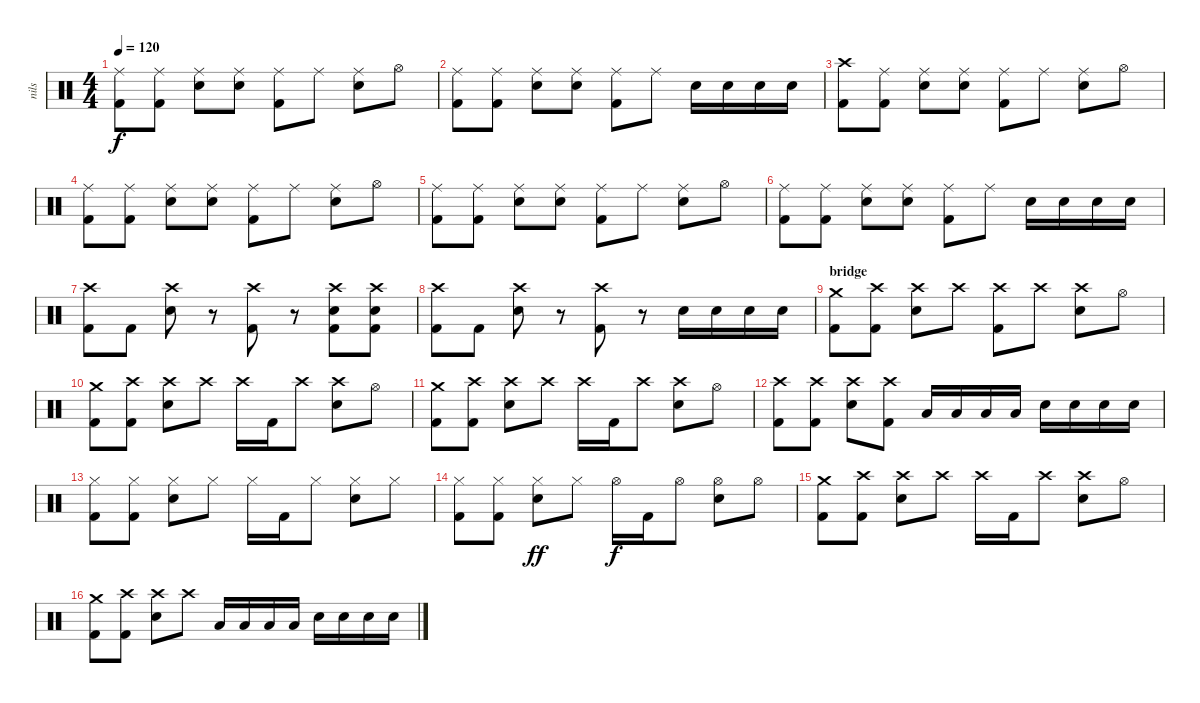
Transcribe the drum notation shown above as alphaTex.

\track ("nils" "nils") {instrument percussion}
\staff {score}
\articulation defaults
\ts (4 4)
\tempo 120
\clef neutral
\ks c
("Ride (middle)" "Kick (hit) 2").8{dy f} ("Ride (middle)" "Kick (hit) 2").8 ("Ride (middle)" "Snare (hit) 2").8 ("Ride (middle)" "Snare (hit) 2").8 ("Ride (middle)" "Kick (hit) 2").8 "Ride (middle)".8 ("Ride (middle)" "Snare (hit) 2").8 "Hi-Hat (open)".8 |
("Ride (middle)" "Kick (hit) 2").8 ("Ride (middle)" "Kick (hit) 2").8 ("Ride (middle)" "Snare (hit) 2").8 ("Ride (middle)" "Snare (hit) 2").8 ("Ride (middle)" "Kick (hit) 2").8 "Ride (middle)".8 "Snare (hit) 2".16 "Snare (hit) 2".16 "Snare (hit) 2".16 "Snare (hit) 2".16 |
("Crash high (hit)" "Kick (hit) 2").8 ("Ride (middle)" "Kick (hit) 2").8 ("Ride (middle)" "Snare (hit) 2").8 ("Ride (middle)" "Snare (hit) 2").8 ("Ride (middle)" "Kick (hit) 2").8 "Ride (middle)".8 ("Ride (middle)" "Snare (hit) 2").8 "Hi-Hat (open)".8 |
("Ride (middle)" "Kick (hit) 2").8 ("Ride (middle)" "Kick (hit) 2").8 ("Ride (middle)" "Snare (hit) 2").8 ("Ride (middle)" "Snare (hit) 2").8 ("Ride (middle)" "Kick (hit) 2").8 "Ride (middle)".8 ("Ride (middle)" "Snare (hit) 2").8 "Hi-Hat (open)".8 |
("Ride (middle)" "Kick (hit) 2").8 ("Ride (middle)" "Kick (hit) 2").8 ("Ride (middle)" "Snare (hit) 2").8 ("Ride (middle)" "Snare (hit) 2").8 ("Ride (middle)" "Kick (hit) 2").8 "Ride (middle)".8 ("Ride (middle)" "Snare (hit) 2").8 "Hi-Hat (open)".8 |
("Ride (middle)" "Kick (hit) 2").8 ("Ride (middle)" "Kick (hit) 2").8 ("Ride (middle)" "Snare (hit) 2").8 ("Ride (middle)" "Snare (hit) 2").8 ("Ride (middle)" "Kick (hit) 2").8 "Ride (middle)".8 "Snare (hit) 2".16 "Snare (hit) 2".16 "Snare (hit) 2".16 "Snare (hit) 2".16 |
("Crash high (hit)" "Kick (hit) 2").8 "Kick (hit) 2".8 ("Crash high (hit)" "Snare (hit) 2").8 r.8 ("Crash high (hit)" "Kick (hit) 2").8 r.8 ("Crash high (hit)" "Snare (hit) 2" "Kick (hit) 2").8 ("Crash high (hit)" "Snare (hit) 2" "Kick (hit) 2").8 |
("Crash high (hit)" "Kick (hit) 2").8 "Kick (hit) 2".8 ("Crash high (hit)" "Snare (hit) 2").8 r.8 ("Crash high (hit)" "Kick (hit) 2").8 r.8 "Snare (hit) 2".16 "Snare (hit) 2".16 "Snare (hit) 2".16 "Snare (hit) 2".16 |
\section ("" "bridge")
("Crash medium (hit)" "Kick (hit) 2").8{volume 14 balance 8} ("Crash high (hit)" "Kick (hit) 2").8 ("Crash high (hit)" "Snare (hit) 2").8 "Crash high (hit)".8 ("Crash high (hit)" "Kick (hit) 2").8 "Crash high (hit)".8 ("Crash high (hit)" "Snare (hit) 2").8 "Hi-Hat (open)".8 |
("Crash medium (hit)" "Kick (hit) 2").8{volume 14 balance 8} ("Crash high (hit)" "Kick (hit) 2").8 ("Crash high (hit)" "Snare (hit) 2").8 "Crash high (hit)".8 "Crash high (hit)".16 "Kick (hit) 2".16 "Crash high (hit)".8 ("Crash high (hit)" "Snare (hit) 2").8 "Hi-Hat (open)".8 |
("Crash medium (hit)" "Kick (hit) 2").8{volume 14 balance 8} ("Crash high (hit)" "Kick (hit) 2").8 ("Crash high (hit)" "Snare (hit) 2").8 "Crash high (hit)".8 "Crash high (hit)".16 "Kick (hit) 2".16 "Crash high (hit)".8 ("Crash high (hit)" "Snare (hit) 2").8 "Hi-Hat (open)".8 |
("Crash high (hit)" "Kick (hit) 2").8 ("Crash high (hit)" "Kick (hit) 2").8 ("Crash high (hit)" "Snare (hit) 2").8 ("Crash high (hit)" "Kick (hit) 2").8 "Low Floor Tom (hit)".16 "Low Floor Tom (hit)".16 "Low Floor Tom (hit)".16 "Low Floor Tom (hit)".16 "Snare (hit) 2".16 "Snare (hit) 2".16 "Snare (hit) 2".16 "Snare (hit) 2".16 |
("Hi-Hat (closed)" "Kick (hit) 2").8{volume 14 balance 8} ("Hi-Hat (closed)" "Kick (hit) 2").8 ("Hi-Hat (closed)" "Snare (hit) 2").8 "Hi-Hat (closed)".8 "Hi-Hat (closed)".16 "Kick (hit) 2".16 "Hi-Hat (closed)".8 ("Hi-Hat (closed)" "Snare (hit) 2").8 "Hi-Hat (closed)".8 |
("Hi-Hat (closed)" "Kick (hit) 2").8{volume 14 balance 8} ("Hi-Hat (closed)" "Kick (hit) 2").8 ("Hi-Hat (closed)" "Snare (hit) 2").8{dy ff} "Hi-Hat (closed)".8 "Hi-Hat (open)".16{dy f} "Kick (hit) 2".16 "Hi-Hat (open)".8 ("Hi-Hat (open)" "Snare (hit) 2").8 "Hi-Hat (open)".8 |
("Crash medium (hit)" "Kick (hit) 2").8{volume 14 balance 8} ("Crash high (hit)" "Kick (hit) 2").8 ("Crash high (hit)" "Snare (hit) 2").8 "Crash high (hit)".8 "Crash high (hit)".16 "Kick (hit) 2".16 "Crash high (hit)".8 ("Crash high (hit)" "Snare (hit) 2").8 "Hi-Hat (open)".8 |
("Crash medium (hit)" "Kick (hit) 2").8{volume 14 balance 8} ("Crash high (hit)" "Kick (hit) 2").8 ("Crash high (hit)" "Snare (hit) 2").8 "Crash high (hit)".8 "Low Floor Tom (hit)".16 "Low Floor Tom (hit)".16 "Low Floor Tom (hit)".16 "Low Floor Tom (hit)".16 "Snare (hit) 2".16 "Snare (hit) 2".16 "Snare (hit) 2".16 "Snare (hit) 2".16
